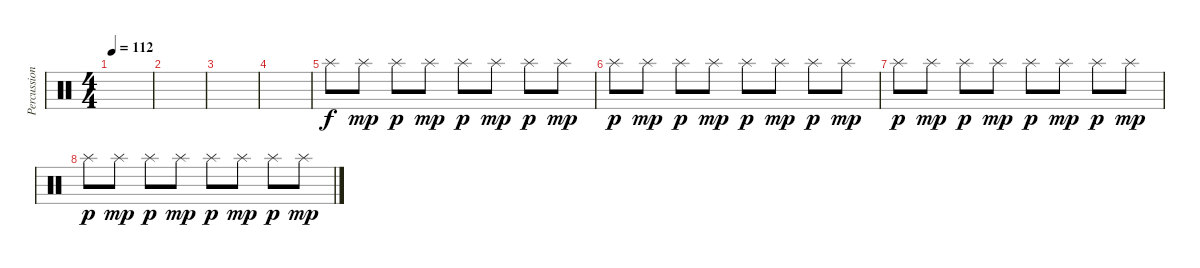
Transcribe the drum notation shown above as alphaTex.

\track ("Percussion" "Percussion") {instrument percussion}
\staff {score}
\articulation defaults
\ts (4 4)
\tempo 112
\clef neutral
\ks c
|
|
|
|
"Splash (hit)".8 "Splash (hit)".8{dy mp} "Splash (hit)".8{dy p} "Splash (hit)".8{dy mp} "Splash (hit)".8{dy p} "Splash (hit)".8{dy mp} "Splash (hit)".8{dy p} "Splash (hit)".8{dy mp} |
"Splash (hit)".8{dy p} "Splash (hit)".8{dy mp} "Splash (hit)".8{dy p} "Splash (hit)".8{dy mp} "Splash (hit)".8{dy p} "Splash (hit)".8{dy mp} "Splash (hit)".8{dy p} "Splash (hit)".8{dy mp} |
"Splash (hit)".8{dy p} "Splash (hit)".8{dy mp} "Splash (hit)".8{dy p} "Splash (hit)".8{dy mp} "Splash (hit)".8{dy p} "Splash (hit)".8{dy mp} "Splash (hit)".8{dy p} "Splash (hit)".8{dy mp} |
"Splash (hit)".8{dy p} "Splash (hit)".8{dy mp} "Splash (hit)".8{dy p} "Splash (hit)".8{dy mp} "Splash (hit)".8{dy p} "Splash (hit)".8{dy mp} "Splash (hit)".8{dy p} "Splash (hit)".8{dy mp}
